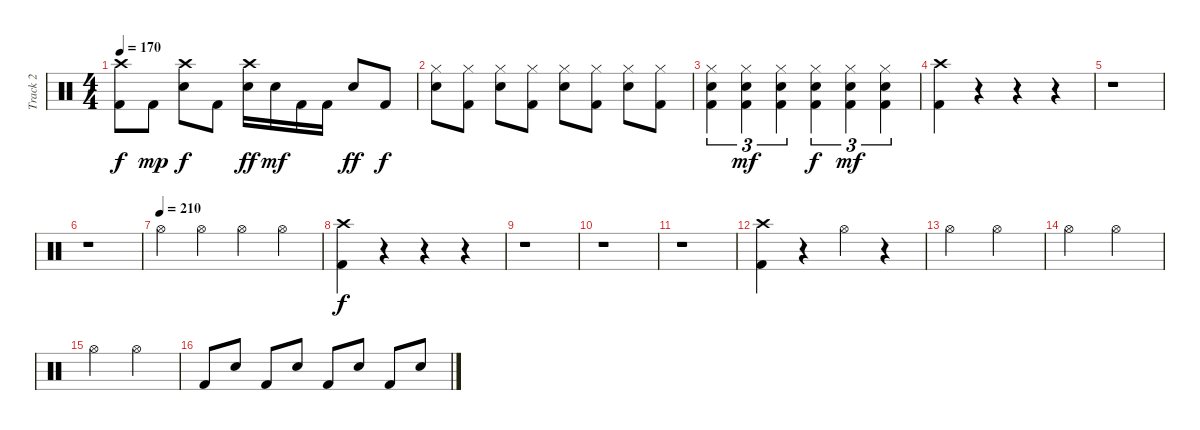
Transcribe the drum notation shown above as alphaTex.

\track ("Track 2" "Track 2") {instrument percussion}
\staff {score}
\articulation defaults
\ts (4 4)
\tempo 170
\clef neutral
\ks c
("Crash high (hit)" "Kick (hit) 2").8{dy f} "Kick (hit) 2".8{dy mp} ("Crash high (hit)" "Electric Snare (hit)").8{dy f} "Kick (hit) 2".8 ("Crash high (hit)" "Electric Snare (hit)").16{dy ff} "Electric Snare (hit)".16{dy mf} "Kick (hit) 2".16 "Kick (hit) 2".16 "Electric Snare (hit)".8{dy ff} "Kick (hit) 2".8{dy f} |
("Hi-Hat (closed)" "Electric Snare (hit)").8 ("Hi-Hat (closed)" "Kick (hit) 2").8 ("Hi-Hat (closed)" "Electric Snare (hit)").8 ("Hi-Hat (closed)" "Kick (hit) 2").8 ("Hi-Hat (closed)" "Electric Snare (hit)").8 ("Hi-Hat (closed)" "Kick (hit) 2").8 ("Hi-Hat (closed)" "Electric Snare (hit)").8 ("Hi-Hat (closed)" "Kick (hit) 2").8 |
("Hi-Hat (closed)" "Electric Snare (hit)" "Kick (hit) 2").4{tu (3 2)} ("Hi-Hat (closed)" "Electric Snare (hit)" "Kick (hit) 2").4{tu (3 2) dy mf} ("Hi-Hat (closed)" "Electric Snare (hit)" "Kick (hit) 2").4{tu (3 2)} ("Hi-Hat (closed)" "Electric Snare (hit)" "Kick (hit) 2").4{tu (3 2) dy f} ("Hi-Hat (closed)" "Electric Snare (hit)" "Kick (hit) 2").4{tu (3 2) dy mf} ("Hi-Hat (closed)" "Electric Snare (hit)" "Kick (hit) 2").4{tu (3 2)} |
("Crash high (hit)" "Kick (hit) 2").4 r.4 r.4 r.4 |
r.1 |
r.1 |
\tempo (210)
"Hi-Hat (open)".4 "Hi-Hat (open)".4 "Hi-Hat (open)".4 "Hi-Hat (open)".4 |
("Crash high (hit)" "Kick (hit) 2").4{dy f} r.4 r.4 r.4 |
r.1 |
r.1 |
r.1 |
("Crash high (hit)" "Kick (hit) 2").4 r.4 "Hi-Hat (open)".4 r.4 |
"Hi-Hat (open)".2 "Hi-Hat (open)".2 |
"Hi-Hat (open)".2 "Hi-Hat (open)".2 |
"Hi-Hat (open)".2 "Hi-Hat (open)".2 |
"Kick (hit) 2".8 "Electric Snare (hit)".8 "Kick (hit) 2".8 "Electric Snare (hit)".8 "Kick (hit) 2".8 "Electric Snare (hit)".8 "Kick (hit) 2".8 "Electric Snare (hit)".8
